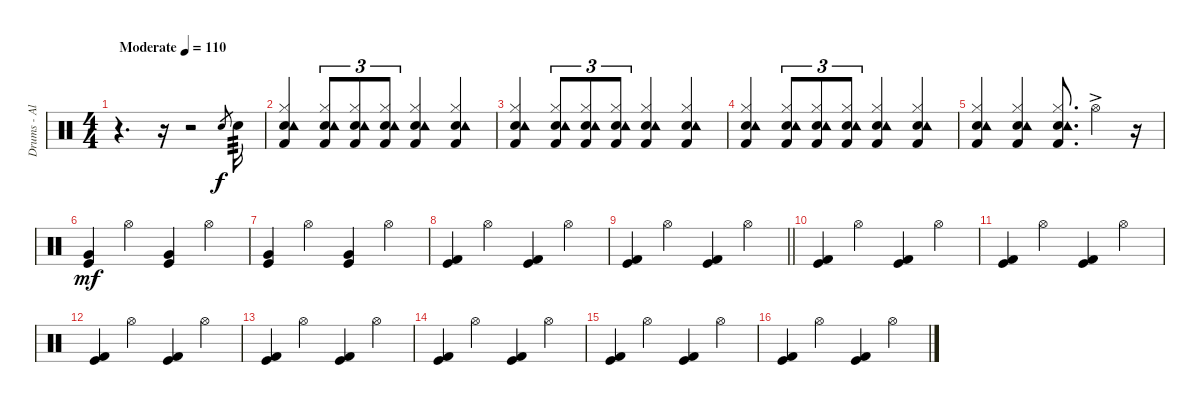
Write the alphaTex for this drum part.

\track ("Drums - Alan White" "Drums - Al") {instrument percussion}
\staff {score}
\articulation defaults
\ts (4 4)
\tempo (110 "Moderate")
\clef neutral
\ks c
r.4{d dy f} r.16 r.2 "Electric Snare (hit)".8{gr} "Snare (hit) 2".16{tp 3} |
("Snare (hit) 2" "Tambourine (hit)" "Hi-Hat (closed)" "Kick (hit) 2").4 ("Snare (hit) 2" "Tambourine (hit)" "Hi-Hat (closed)" "Kick (hit) 2").8{tu (3 2)} ("Snare (hit) 2" "Tambourine (hit)" "Hi-Hat (closed)" "Kick (hit) 2").8{tu (3 2)} ("Snare (hit) 2" "Tambourine (hit)" "Hi-Hat (closed)" "Kick (hit) 2").8{tu (3 2)} ("Snare (hit) 2" "Tambourine (hit)" "Hi-Hat (closed)" "Kick (hit) 2").4 ("Snare (hit) 2" "Tambourine (hit)" "Hi-Hat (closed)" "Kick (hit) 2").4 |
("Snare (hit) 2" "Tambourine (hit)" "Hi-Hat (closed)" "Kick (hit) 2").4 ("Snare (hit) 2" "Tambourine (hit)" "Hi-Hat (closed)" "Kick (hit) 2").8{tu (3 2)} ("Snare (hit) 2" "Tambourine (hit)" "Hi-Hat (closed)" "Kick (hit) 2").8{tu (3 2)} ("Snare (hit) 2" "Tambourine (hit)" "Hi-Hat (closed)" "Kick (hit) 2").8{tu (3 2)} ("Snare (hit) 2" "Tambourine (hit)" "Hi-Hat (closed)" "Kick (hit) 2").4 ("Snare (hit) 2" "Tambourine (hit)" "Hi-Hat (closed)" "Kick (hit) 2").4 |
("Snare (hit) 2" "Tambourine (hit)" "Hi-Hat (closed)" "Kick (hit) 2").4 ("Snare (hit) 2" "Tambourine (hit)" "Hi-Hat (closed)" "Kick (hit) 2").8{tu (3 2)} ("Snare (hit) 2" "Tambourine (hit)" "Hi-Hat (closed)" "Kick (hit) 2").8{tu (3 2)} ("Snare (hit) 2" "Tambourine (hit)" "Hi-Hat (closed)" "Kick (hit) 2").8{tu (3 2)} ("Snare (hit) 2" "Tambourine (hit)" "Hi-Hat (closed)" "Kick (hit) 2").4 ("Snare (hit) 2" "Tambourine (hit)" "Hi-Hat (closed)" "Kick (hit) 2").4 |
("Snare (hit) 2" "Tambourine (hit)" "Hi-Hat (closed)" "Kick (hit) 2").4 ("Snare (hit) 2" "Tambourine (hit)" "Hi-Hat (closed)" "Kick (hit) 2").4 ("Snare (hit) 2" "Tambourine (hit)" "Hi-Hat (closed)" "Kick (hit) 2").8{d} "Hi-Hat (open)"{ac}.4 r.16 |
("Kick (hit)" "Very Low Tom (hit)").4{dy mf} "Hi-Hat (open)".4 ("Kick (hit)" "Very Low Tom (hit)").4 "Hi-Hat (open)".4 |
("Kick (hit)" "Very Low Tom (hit)").4 "Hi-Hat (open)".4 ("Kick (hit)" "Very Low Tom (hit)").4 "Hi-Hat (open)".4 |
("Kick (hit)" "Kick (hit) 2").4 "Hi-Hat (open)".4 ("Kick (hit)" "Kick (hit) 2").4 "Hi-Hat (open)".4 |
\barLineRight lightlight
("Kick (hit)" "Kick (hit) 2").4 "Hi-Hat (open)".4 ("Kick (hit)" "Kick (hit) 2").4 "Hi-Hat (open)".4 |
("Kick (hit)" "Kick (hit) 2").4 "Hi-Hat (open)".4 ("Kick (hit)" "Kick (hit) 2").4 "Hi-Hat (open)".4 |
("Kick (hit)" "Kick (hit) 2").4 "Hi-Hat (open)".4 ("Kick (hit)" "Kick (hit) 2").4 "Hi-Hat (open)".4 |
("Kick (hit)" "Kick (hit) 2").4 "Hi-Hat (open)".4 ("Kick (hit)" "Kick (hit) 2").4 "Hi-Hat (open)".4 |
("Kick (hit)" "Kick (hit) 2").4 "Hi-Hat (open)".4 ("Kick (hit)" "Kick (hit) 2").4 "Hi-Hat (open)".4 |
("Kick (hit)" "Kick (hit) 2").4 "Hi-Hat (open)".4 ("Kick (hit)" "Kick (hit) 2").4 "Hi-Hat (open)".4 |
("Kick (hit)" "Kick (hit) 2").4 "Hi-Hat (open)".4 ("Kick (hit)" "Kick (hit) 2").4 "Hi-Hat (open)".4 |
("Kick (hit)" "Kick (hit) 2").4 "Hi-Hat (open)".4 ("Kick (hit)" "Kick (hit) 2").4 "Hi-Hat (open)".4
